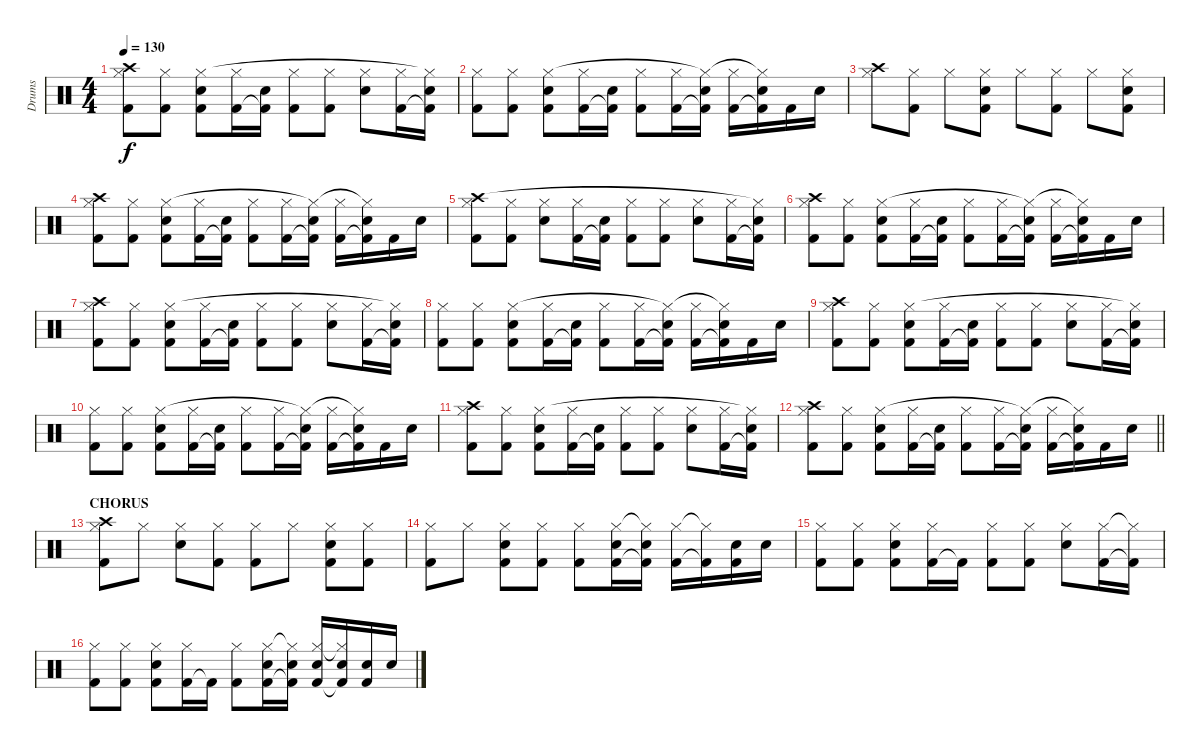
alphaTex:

\track ("Drums" "Drums") {instrument percussion}
\staff {score}
\articulation defaults
\ts (4 4)
\tempo 130
\clef neutral
\ks c
("Kick (hit) 2" "Hi-Hat (closed)" "Crash high (hit)").8{dy f} ("Kick (hit) 2" "Hi-Hat (closed)").8 ("Kick (hit) 2" "Electric Snare (hit)" "Hi-Hat (closed)").8 ("Kick (hit) 2" "Hi-Hat (closed)").16 ("Kick (hit) 2"{t} "Electric Snare (hit)").16 ("Kick (hit) 2" "Hi-Hat (closed)").8 ("Kick (hit) 2" "Hi-Hat (closed)").8 ("Electric Snare (hit)" "Hi-Hat (closed)").8 ("Kick (hit) 2" "Hi-Hat (closed)").16 ("Kick (hit) 2"{t} "Electric Snare (hit)" "Hi-Hat (closed)"{t}).16 |
("Kick (hit) 2" "Hi-Hat (closed)").8 ("Kick (hit) 2" "Hi-Hat (closed)").8 ("Kick (hit) 2" "Electric Snare (hit)" "Hi-Hat (closed)").8 ("Kick (hit) 2" "Hi-Hat (closed)").16 ("Kick (hit) 2"{t} "Electric Snare (hit)").16 ("Kick (hit) 2" "Hi-Hat (closed)").8 ("Kick (hit) 2" "Hi-Hat (closed)").16 ("Kick (hit) 2"{t} "Electric Snare (hit)" "Hi-Hat (closed)"{t}).16 ("Kick (hit) 2" "Hi-Hat (closed)").16 ("Kick (hit) 2"{t} "Electric Snare (hit)" "Hi-Hat (closed)"{t}).16 "Kick (hit) 2".16 "Electric Snare (hit)".16 |
("Hi-Hat (closed)" "Crash high (hit)").8 ("Kick (hit) 2" "Hi-Hat (closed)").8 "Hi-Hat (closed)".8 ("Kick (hit) 2" "Electric Snare (hit)" "Hi-Hat (closed)").8 "Hi-Hat (closed)".8 ("Kick (hit) 2" "Hi-Hat (closed)").8 "Hi-Hat (closed)".8 ("Kick (hit) 2" "Electric Snare (hit)" "Hi-Hat (closed)").8 |
("Kick (hit) 2" "Hi-Hat (closed)" "Crash high (hit)").8 ("Kick (hit) 2" "Hi-Hat (closed)").8 ("Kick (hit) 2" "Electric Snare (hit)" "Hi-Hat (closed)").8 ("Kick (hit) 2" "Hi-Hat (closed)").16 ("Kick (hit) 2"{t} "Electric Snare (hit)").16 ("Kick (hit) 2" "Hi-Hat (closed)").8 ("Kick (hit) 2" "Hi-Hat (closed)").16 ("Kick (hit) 2"{t} "Electric Snare (hit)" "Hi-Hat (closed)"{t}).16 ("Kick (hit) 2" "Hi-Hat (closed)").16 ("Kick (hit) 2"{t} "Electric Snare (hit)" "Hi-Hat (closed)"{t}).16 "Kick (hit) 2".16 "Electric Snare (hit)".16 |
("Kick (hit) 2" "Hi-Hat (closed)" "Crash high (hit)").8 ("Kick (hit) 2" "Hi-Hat (closed)").8 ("Electric Snare (hit)" "Hi-Hat (closed)").8 ("Kick (hit) 2" "Hi-Hat (closed)").16 ("Kick (hit) 2"{t} "Electric Snare (hit)").16 ("Kick (hit) 2" "Hi-Hat (closed)").8 ("Kick (hit) 2" "Hi-Hat (closed)").8 ("Electric Snare (hit)" "Hi-Hat (closed)").8 ("Kick (hit) 2" "Hi-Hat (closed)").16 ("Kick (hit) 2"{t} "Electric Snare (hit)" "Hi-Hat (closed)"{t}).16 |
("Kick (hit) 2" "Hi-Hat (closed)" "Crash high (hit)").8 ("Kick (hit) 2" "Hi-Hat (closed)").8 ("Kick (hit) 2" "Electric Snare (hit)" "Hi-Hat (closed)").8 ("Kick (hit) 2" "Hi-Hat (closed)").16 ("Kick (hit) 2"{t} "Electric Snare (hit)").16 ("Kick (hit) 2" "Hi-Hat (closed)").8 ("Kick (hit) 2" "Hi-Hat (closed)").16 ("Kick (hit) 2"{t} "Electric Snare (hit)" "Hi-Hat (closed)"{t}).16 ("Kick (hit) 2" "Hi-Hat (closed)").16 ("Kick (hit) 2"{t} "Electric Snare (hit)" "Hi-Hat (closed)"{t}).16 "Kick (hit) 2".16 "Electric Snare (hit)".16 |
("Kick (hit) 2" "Hi-Hat (closed)" "Crash high (hit)").8 ("Kick (hit) 2" "Hi-Hat (closed)").8 ("Kick (hit) 2" "Electric Snare (hit)" "Hi-Hat (closed)").8 ("Kick (hit) 2" "Hi-Hat (closed)").16 ("Kick (hit) 2"{t} "Electric Snare (hit)").16 ("Kick (hit) 2" "Hi-Hat (closed)").8 ("Kick (hit) 2" "Hi-Hat (closed)").8 ("Electric Snare (hit)" "Hi-Hat (closed)").8 ("Kick (hit) 2" "Hi-Hat (closed)").16 ("Kick (hit) 2"{t} "Electric Snare (hit)" "Hi-Hat (closed)"{t}).16 |
("Kick (hit) 2" "Hi-Hat (closed)").8 ("Kick (hit) 2" "Hi-Hat (closed)").8 ("Kick (hit) 2" "Electric Snare (hit)" "Hi-Hat (closed)").8 ("Kick (hit) 2" "Hi-Hat (closed)").16 ("Kick (hit) 2"{t} "Electric Snare (hit)").16 ("Kick (hit) 2" "Hi-Hat (closed)").8 ("Kick (hit) 2" "Hi-Hat (closed)").16 ("Kick (hit) 2"{t} "Electric Snare (hit)" "Hi-Hat (closed)"{t}).16 ("Kick (hit) 2" "Hi-Hat (closed)").16 ("Kick (hit) 2"{t} "Electric Snare (hit)" "Hi-Hat (closed)"{t}).16 "Kick (hit) 2".16 "Electric Snare (hit)".16 |
("Kick (hit) 2" "Hi-Hat (closed)" "Crash high (hit)").8 ("Kick (hit) 2" "Hi-Hat (closed)").8 ("Kick (hit) 2" "Electric Snare (hit)" "Hi-Hat (closed)").8 ("Kick (hit) 2" "Hi-Hat (closed)").16 ("Kick (hit) 2"{t} "Electric Snare (hit)").16 ("Kick (hit) 2" "Hi-Hat (closed)").8 ("Kick (hit) 2" "Hi-Hat (closed)").8 ("Electric Snare (hit)" "Hi-Hat (closed)").8 ("Kick (hit) 2" "Hi-Hat (closed)").16 ("Kick (hit) 2"{t} "Electric Snare (hit)" "Hi-Hat (closed)"{t}).16 |
("Kick (hit) 2" "Hi-Hat (closed)").8 ("Kick (hit) 2" "Hi-Hat (closed)").8 ("Kick (hit) 2" "Electric Snare (hit)" "Hi-Hat (closed)").8 ("Kick (hit) 2" "Hi-Hat (closed)").16 ("Kick (hit) 2"{t} "Electric Snare (hit)").16 ("Kick (hit) 2" "Hi-Hat (closed)").8 ("Kick (hit) 2" "Hi-Hat (closed)").16 ("Kick (hit) 2"{t} "Electric Snare (hit)" "Hi-Hat (closed)"{t}).16 ("Kick (hit) 2" "Hi-Hat (closed)").16 ("Kick (hit) 2"{t} "Electric Snare (hit)" "Hi-Hat (closed)"{t}).16 "Kick (hit) 2".16 "Electric Snare (hit)".16 |
("Kick (hit) 2" "Hi-Hat (closed)" "Crash high (hit)").8 ("Kick (hit) 2" "Hi-Hat (closed)").8 ("Kick (hit) 2" "Electric Snare (hit)" "Hi-Hat (closed)").8 ("Kick (hit) 2" "Hi-Hat (closed)").16 ("Kick (hit) 2"{t} "Electric Snare (hit)").16 ("Kick (hit) 2" "Hi-Hat (closed)").8 ("Kick (hit) 2" "Hi-Hat (closed)").8 ("Electric Snare (hit)" "Hi-Hat (closed)").8 ("Kick (hit) 2" "Hi-Hat (closed)").16 ("Kick (hit) 2"{t} "Electric Snare (hit)" "Hi-Hat (closed)"{t}).16 |
\barLineRight lightlight
("Kick (hit) 2" "Hi-Hat (closed)" "Crash high (hit)").8 ("Kick (hit) 2" "Hi-Hat (closed)").8 ("Kick (hit) 2" "Electric Snare (hit)" "Hi-Hat (closed)").8 ("Kick (hit) 2" "Hi-Hat (closed)").16 ("Kick (hit) 2"{t} "Electric Snare (hit)").16 ("Kick (hit) 2" "Hi-Hat (closed)").8 ("Kick (hit) 2" "Hi-Hat (closed)").16 ("Kick (hit) 2"{t} "Electric Snare (hit)" "Hi-Hat (closed)"{t}).16 ("Kick (hit) 2" "Hi-Hat (closed)").16 ("Kick (hit) 2"{t} "Electric Snare (hit)" "Hi-Hat (closed)"{t}).16 "Kick (hit) 2".16 "Electric Snare (hit)".16 |
\section ("" "CHORUS")
("Kick (hit) 2" "Hi-Hat (closed)" "Crash high (hit)").8 "Hi-Hat (closed)".8 ("Electric Snare (hit)" "Hi-Hat (closed)").8 ("Kick (hit) 2" "Hi-Hat (closed)").8 ("Kick (hit) 2" "Hi-Hat (closed)").8 "Hi-Hat (closed)".8 ("Kick (hit) 2" "Electric Snare (hit)" "Hi-Hat (closed)").8 ("Kick (hit) 2" "Hi-Hat (closed)").8 |
("Kick (hit) 2" "Hi-Hat (closed)").8 "Hi-Hat (closed)".8 ("Kick (hit) 2" "Electric Snare (hit)" "Hi-Hat (closed)").8 ("Kick (hit) 2" "Hi-Hat (closed)").8 ("Kick (hit) 2" "Hi-Hat (closed)").8 ("Kick (hit) 2" "Electric Snare (hit)" "Hi-Hat (closed)").16 ("Kick (hit) 2"{t} "Electric Snare (hit)" "Hi-Hat (closed)"{t}).16 ("Kick (hit) 2" "Hi-Hat (closed)").16 ("Kick (hit) 2"{t} "Hi-Hat (closed)"{t}).16 ("Kick (hit) 2" "Electric Snare (hit)").16 "Electric Snare (hit)".16 |
("Kick (hit) 2" "Hi-Hat (closed)").8 ("Kick (hit) 2" "Hi-Hat (closed)").8 ("Kick (hit) 2" "Electric Snare (hit)" "Hi-Hat (closed)").8 ("Kick (hit) 2" "Hi-Hat (closed)").16 "Kick (hit) 2"{t}.16 ("Kick (hit) 2" "Hi-Hat (closed)").8 ("Kick (hit) 2" "Hi-Hat (closed)").8 ("Electric Snare (hit)" "Hi-Hat (closed)").8 ("Kick (hit) 2" "Hi-Hat (closed)").16 ("Kick (hit) 2"{t} "Hi-Hat (closed)"{t}).16 |
("Kick (hit) 2" "Hi-Hat (closed)").8 ("Kick (hit) 2" "Hi-Hat (closed)").8 ("Kick (hit) 2" "Electric Snare (hit)" "Hi-Hat (closed)").8 ("Kick (hit) 2" "Hi-Hat (closed)").16 "Kick (hit) 2"{t}.16 ("Kick (hit) 2" "Hi-Hat (closed)").8 ("Kick (hit) 2" "Electric Snare (hit)" "Hi-Hat (closed)").16 ("Kick (hit) 2"{t} "Electric Snare (hit)" "Hi-Hat (closed)"{t}).16 ("Kick (hit) 2" "Electric Snare (hit)" "Hi-Hat (closed)").16 ("Kick (hit) 2"{t} "Electric Snare (hit)" "Hi-Hat (closed)"{t}).16 ("Kick (hit) 2" "Electric Snare (hit)").16 "Electric Snare (hit)".16
